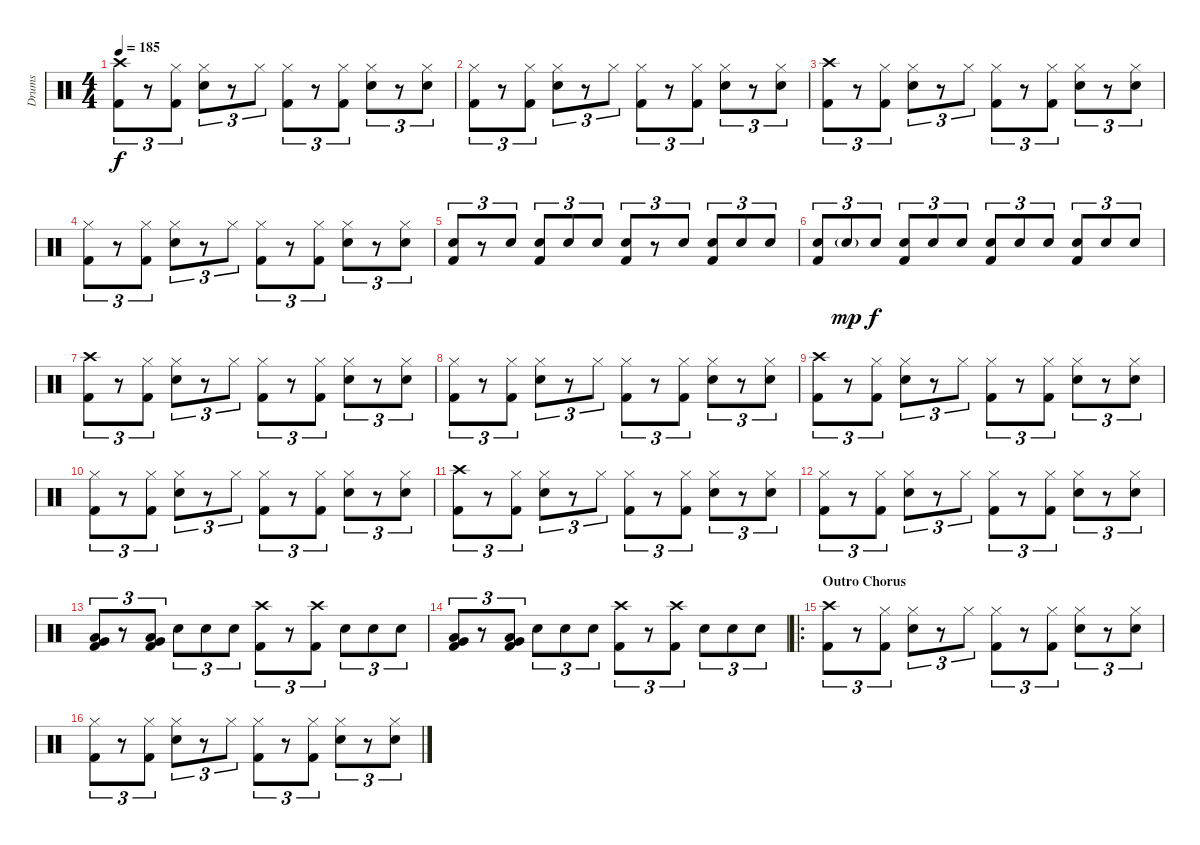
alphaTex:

\track ("Drums" "Drums") {instrument percussion}
\staff {score}
\articulation defaults
\ts (4 4)
\tempo 185
\clef neutral
\ks c
("Crash high (hit)" "Kick (hit) 2").8{tu (3 2) dy f} r.8{tu (3 2)} ("Hi-Hat (closed)" "Kick (hit) 2").8{tu (3 2)} ("Hi-Hat (closed)" "Electric Snare (hit)").8{tu (3 2)} r.8{tu (3 2)} "Hi-Hat (closed)".8{tu (3 2)} ("Hi-Hat (closed)" "Kick (hit) 2").8{tu (3 2)} r.8{tu (3 2)} ("Hi-Hat (closed)" "Kick (hit) 2").8{tu (3 2)} ("Hi-Hat (closed)" "Electric Snare (hit)").8{tu (3 2)} r.8{tu (3 2)} ("Hi-Hat (closed)" "Electric Snare (hit)").8{tu (3 2)} |
("Hi-Hat (closed)" "Kick (hit) 2").8{tu (3 2)} r.8{tu (3 2)} ("Hi-Hat (closed)" "Kick (hit) 2").8{tu (3 2)} ("Hi-Hat (closed)" "Electric Snare (hit)").8{tu (3 2)} r.8{tu (3 2)} "Hi-Hat (closed)".8{tu (3 2)} ("Hi-Hat (closed)" "Kick (hit) 2").8{tu (3 2)} r.8{tu (3 2)} ("Hi-Hat (closed)" "Kick (hit) 2").8{tu (3 2)} ("Hi-Hat (closed)" "Electric Snare (hit)").8{tu (3 2)} r.8{tu (3 2)} ("Hi-Hat (closed)" "Electric Snare (hit)").8{tu (3 2)} |
("Crash high (hit)" "Kick (hit) 2").8{tu (3 2)} r.8{tu (3 2)} ("Hi-Hat (closed)" "Kick (hit) 2").8{tu (3 2)} ("Hi-Hat (closed)" "Electric Snare (hit)").8{tu (3 2)} r.8{tu (3 2)} "Hi-Hat (closed)".8{tu (3 2)} ("Hi-Hat (closed)" "Kick (hit) 2").8{tu (3 2)} r.8{tu (3 2)} ("Hi-Hat (closed)" "Kick (hit) 2").8{tu (3 2)} ("Hi-Hat (closed)" "Electric Snare (hit)").8{tu (3 2)} r.8{tu (3 2)} ("Hi-Hat (closed)" "Electric Snare (hit)").8{tu (3 2)} |
("Hi-Hat (closed)" "Kick (hit) 2").8{tu (3 2)} r.8{tu (3 2)} ("Hi-Hat (closed)" "Kick (hit) 2").8{tu (3 2)} ("Hi-Hat (closed)" "Electric Snare (hit)").8{tu (3 2)} r.8{tu (3 2)} "Hi-Hat (closed)".8{tu (3 2)} ("Hi-Hat (closed)" "Kick (hit) 2").8{tu (3 2)} r.8{tu (3 2)} ("Hi-Hat (closed)" "Kick (hit) 2").8{tu (3 2)} ("Hi-Hat (closed)" "Electric Snare (hit)").8{tu (3 2)} r.8{tu (3 2)} ("Hi-Hat (closed)" "Electric Snare (hit)").8{tu (3 2)} |
("Electric Snare (hit)" "Kick (hit) 2").8{tu (3 2)} r.8{tu (3 2)} "Electric Snare (hit)".8{tu (3 2)} ("Electric Snare (hit)" "Kick (hit) 2").8{tu (3 2)} "Electric Snare (hit)".8{tu (3 2)} "Electric Snare (hit)".8{tu (3 2)} ("Electric Snare (hit)" "Kick (hit) 2").8{tu (3 2)} r.8{tu (3 2)} "Electric Snare (hit)".8{tu (3 2)} ("Electric Snare (hit)" "Kick (hit) 2").8{tu (3 2)} "Electric Snare (hit)".8{tu (3 2)} "Electric Snare (hit)".8{tu (3 2)} |
("Electric Snare (hit)" "Kick (hit) 2").8{tu (3 2)} "Electric Snare (hit)"{g}.8{tu (3 2) dy mp} "Electric Snare (hit)".8{tu (3 2) dy f} ("Electric Snare (hit)" "Kick (hit) 2").8{tu (3 2)} "Electric Snare (hit)".8{tu (3 2)} "Electric Snare (hit)".8{tu (3 2)} ("Electric Snare (hit)" "Kick (hit) 2").8{tu (3 2)} "Electric Snare (hit)".8{tu (3 2)} "Electric Snare (hit)".8{tu (3 2)} ("Electric Snare (hit)" "Kick (hit) 2").8{tu (3 2)} "Electric Snare (hit)".8{tu (3 2)} "Electric Snare (hit)".8{tu (3 2)} |
("Crash high (hit)" "Kick (hit) 2").8{tu (3 2)} r.8{tu (3 2)} ("Hi-Hat (closed)" "Kick (hit) 2").8{tu (3 2)} ("Hi-Hat (closed)" "Electric Snare (hit)").8{tu (3 2)} r.8{tu (3 2)} "Hi-Hat (closed)".8{tu (3 2)} ("Hi-Hat (closed)" "Kick (hit) 2").8{tu (3 2)} r.8{tu (3 2)} ("Hi-Hat (closed)" "Kick (hit) 2").8{tu (3 2)} ("Hi-Hat (closed)" "Electric Snare (hit)").8{tu (3 2)} r.8{tu (3 2)} ("Hi-Hat (closed)" "Electric Snare (hit)").8{tu (3 2)} |
("Hi-Hat (closed)" "Kick (hit) 2").8{tu (3 2)} r.8{tu (3 2)} ("Hi-Hat (closed)" "Kick (hit) 2").8{tu (3 2)} ("Hi-Hat (closed)" "Electric Snare (hit)").8{tu (3 2)} r.8{tu (3 2)} "Hi-Hat (closed)".8{tu (3 2)} ("Hi-Hat (closed)" "Kick (hit) 2").8{tu (3 2)} r.8{tu (3 2)} ("Hi-Hat (closed)" "Kick (hit) 2").8{tu (3 2)} ("Hi-Hat (closed)" "Electric Snare (hit)").8{tu (3 2)} r.8{tu (3 2)} ("Hi-Hat (closed)" "Electric Snare (hit)").8{tu (3 2)} |
("Crash high (hit)" "Kick (hit) 2").8{tu (3 2)} r.8{tu (3 2)} ("Hi-Hat (closed)" "Kick (hit) 2").8{tu (3 2)} ("Hi-Hat (closed)" "Electric Snare (hit)").8{tu (3 2)} r.8{tu (3 2)} "Hi-Hat (closed)".8{tu (3 2)} ("Hi-Hat (closed)" "Kick (hit) 2").8{tu (3 2)} r.8{tu (3 2)} ("Hi-Hat (closed)" "Kick (hit) 2").8{tu (3 2)} ("Hi-Hat (closed)" "Electric Snare (hit)").8{tu (3 2)} r.8{tu (3 2)} ("Hi-Hat (closed)" "Electric Snare (hit)").8{tu (3 2)} |
("Hi-Hat (closed)" "Kick (hit) 2").8{tu (3 2)} r.8{tu (3 2)} ("Hi-Hat (closed)" "Kick (hit) 2").8{tu (3 2)} ("Hi-Hat (closed)" "Electric Snare (hit)").8{tu (3 2)} r.8{tu (3 2)} "Hi-Hat (closed)".8{tu (3 2)} ("Hi-Hat (closed)" "Kick (hit) 2").8{tu (3 2)} r.8{tu (3 2)} ("Hi-Hat (closed)" "Kick (hit) 2").8{tu (3 2)} ("Hi-Hat (closed)" "Electric Snare (hit)").8{tu (3 2)} r.8{tu (3 2)} ("Hi-Hat (closed)" "Electric Snare (hit)").8{tu (3 2)} |
("Crash high (hit)" "Kick (hit) 2").8{tu (3 2)} r.8{tu (3 2)} ("Hi-Hat (closed)" "Kick (hit) 2").8{tu (3 2)} ("Hi-Hat (closed)" "Electric Snare (hit)").8{tu (3 2)} r.8{tu (3 2)} "Hi-Hat (closed)".8{tu (3 2)} ("Hi-Hat (closed)" "Kick (hit) 2").8{tu (3 2)} r.8{tu (3 2)} ("Hi-Hat (closed)" "Kick (hit) 2").8{tu (3 2)} ("Hi-Hat (closed)" "Electric Snare (hit)").8{tu (3 2)} r.8{tu (3 2)} ("Hi-Hat (closed)" "Electric Snare (hit)").8{tu (3 2)} |
("Hi-Hat (closed)" "Kick (hit) 2").8{tu (3 2)} r.8{tu (3 2)} ("Hi-Hat (closed)" "Kick (hit) 2").8{tu (3 2)} ("Hi-Hat (closed)" "Electric Snare (hit)").8{tu (3 2)} r.8{tu (3 2)} "Hi-Hat (closed)".8{tu (3 2)} ("Hi-Hat (closed)" "Kick (hit) 2").8{tu (3 2)} r.8{tu (3 2)} ("Hi-Hat (closed)" "Kick (hit) 2").8{tu (3 2)} ("Hi-Hat (closed)" "Electric Snare (hit)").8{tu (3 2)} r.8{tu (3 2)} ("Hi-Hat (closed)" "Electric Snare (hit)").8{tu (3 2)} |
("Low Floor Tom (hit)" "Very Low Tom (hit)" "Kick (hit) 2").8{tu (3 2)} r.8{tu (3 2)} ("Low Floor Tom (hit)" "Very Low Tom (hit)" "Kick (hit) 2").8{tu (3 2)} "Electric Snare (hit)".8{tu (3 2)} "Electric Snare (hit)".8{tu (3 2)} "Electric Snare (hit)".8{tu (3 2)} ("Crash high (hit)" "Kick (hit) 2").8{tu (3 2)} r.8{tu (3 2)} ("Crash high (hit)" "Kick (hit) 2").8{tu (3 2)} "Electric Snare (hit)".8{tu (3 2)} "Electric Snare (hit)".8{tu (3 2)} "Electric Snare (hit)".8{tu (3 2)} |
("Low Floor Tom (hit)" "Very Low Tom (hit)" "Kick (hit) 2").8{tu (3 2)} r.8{tu (3 2)} ("Low Floor Tom (hit)" "Very Low Tom (hit)" "Kick (hit) 2").8{tu (3 2)} "Electric Snare (hit)".8{tu (3 2)} "Electric Snare (hit)".8{tu (3 2)} "Electric Snare (hit)".8{tu (3 2)} ("Crash high (hit)" "Kick (hit) 2").8{tu (3 2)} r.8{tu (3 2)} ("Crash high (hit)" "Kick (hit) 2").8{tu (3 2)} "Electric Snare (hit)".8{tu (3 2)} "Electric Snare (hit)".8{tu (3 2)} "Electric Snare (hit)".8{tu (3 2)} |
\ro
\section ("" "Outro Chorus")
("Crash high (hit)" "Kick (hit) 2").8{tu (3 2)} r.8{tu (3 2)} ("Hi-Hat (closed)" "Kick (hit) 2").8{tu (3 2)} ("Hi-Hat (closed)" "Electric Snare (hit)").8{tu (3 2)} r.8{tu (3 2)} "Hi-Hat (closed)".8{tu (3 2)} ("Hi-Hat (closed)" "Kick (hit) 2").8{tu (3 2)} r.8{tu (3 2)} ("Hi-Hat (closed)" "Kick (hit) 2").8{tu (3 2)} ("Hi-Hat (closed)" "Electric Snare (hit)").8{tu (3 2)} r.8{tu (3 2)} ("Hi-Hat (closed)" "Electric Snare (hit)").8{tu (3 2)} |
("Hi-Hat (closed)" "Kick (hit) 2").8{tu (3 2)} r.8{tu (3 2)} ("Hi-Hat (closed)" "Kick (hit) 2").8{tu (3 2)} ("Hi-Hat (closed)" "Electric Snare (hit)").8{tu (3 2)} r.8{tu (3 2)} "Hi-Hat (closed)".8{tu (3 2)} ("Hi-Hat (closed)" "Kick (hit) 2").8{tu (3 2)} r.8{tu (3 2)} ("Hi-Hat (closed)" "Kick (hit) 2").8{tu (3 2)} ("Hi-Hat (closed)" "Electric Snare (hit)").8{tu (3 2)} r.8{tu (3 2)} ("Hi-Hat (closed)" "Electric Snare (hit)").8{tu (3 2)}
